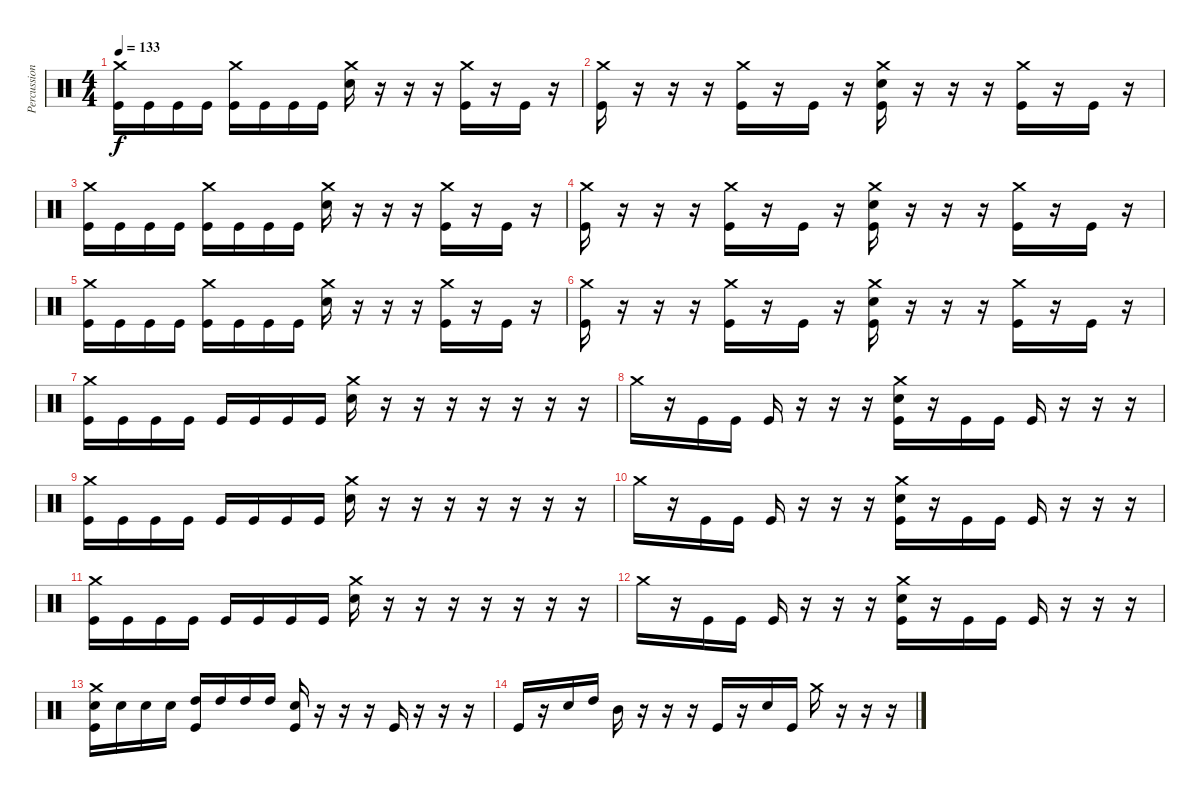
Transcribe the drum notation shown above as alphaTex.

\track ("Percussion" "Percussion") {instrument percussion}
\staff {score}
\articulation defaults
\ts (4 4)
\tempo 133
\clef neutral
\ks c
("Crash medium (hit)" "Kick (hit)").16{dy f} "Kick (hit)".16 "Kick (hit)".16 "Kick (hit)".16 ("Crash medium (hit)" "Kick (hit)").16 "Kick (hit)".16 "Kick (hit)".16 "Kick (hit)".16 ("Crash medium (hit)" "Electric Snare (hit)").16 r.16 r.16 r.16 ("Crash medium (hit)" "Kick (hit)").16 r.16 "Kick (hit)".16 r.16 |
("Crash medium (hit)" "Kick (hit)").16 r.16 r.16 r.16 ("Crash medium (hit)" "Kick (hit)").16 r.16 "Kick (hit)".16 r.16 ("Crash medium (hit)" "Electric Snare (hit)" "Kick (hit)").16 r.16 r.16 r.16 ("Crash medium (hit)" "Kick (hit)").16 r.16 "Kick (hit)".16 r.16 |
("Crash medium (hit)" "Kick (hit)").16 "Kick (hit)".16 "Kick (hit)".16 "Kick (hit)".16 ("Crash medium (hit)" "Kick (hit)").16 "Kick (hit)".16 "Kick (hit)".16 "Kick (hit)".16 ("Crash medium (hit)" "Electric Snare (hit)").16 r.16 r.16 r.16 ("Crash medium (hit)" "Kick (hit)").16 r.16 "Kick (hit)".16 r.16 |
("Crash medium (hit)" "Kick (hit)").16 r.16 r.16 r.16 ("Crash medium (hit)" "Kick (hit)").16 r.16 "Kick (hit)".16 r.16 ("Crash medium (hit)" "Electric Snare (hit)" "Kick (hit)").16 r.16 r.16 r.16 ("Crash medium (hit)" "Kick (hit)").16 r.16 "Kick (hit)".16 r.16 |
("Crash medium (hit)" "Kick (hit)").16 "Kick (hit)".16 "Kick (hit)".16 "Kick (hit)".16 ("Crash medium (hit)" "Kick (hit)").16 "Kick (hit)".16 "Kick (hit)".16 "Kick (hit)".16 ("Crash medium (hit)" "Electric Snare (hit)").16 r.16 r.16 r.16 ("Crash medium (hit)" "Kick (hit)").16 r.16 "Kick (hit)".16 r.16 |
("Crash medium (hit)" "Kick (hit)").16 r.16 r.16 r.16 ("Crash medium (hit)" "Kick (hit)").16 r.16 "Kick (hit)".16 r.16 ("Crash medium (hit)" "Electric Snare (hit)" "Kick (hit)").16 r.16 r.16 r.16 ("Crash medium (hit)" "Kick (hit)").16 r.16 "Kick (hit)".16 r.16 |
("Crash medium (hit)" "Kick (hit)").16 "Kick (hit)".16 "Kick (hit)".16 "Kick (hit)".16 "Kick (hit)".16 "Kick (hit)".16 "Kick (hit)".16 "Kick (hit)".16 ("Crash medium (hit)" "Electric Snare (hit)").16 r.16 r.16 r.16 r.16 r.16 r.16 r.16 |
"Crash medium (hit)".16 r.16 "Kick (hit)".16 "Kick (hit)".16 "Kick (hit)".16 r.16 r.16 r.16 ("Crash medium (hit)" "Electric Snare (hit)" "Kick (hit)").16 r.16 "Kick (hit)".16 "Kick (hit)".16 "Kick (hit)".16 r.16 r.16 r.16 |
("Crash medium (hit)" "Kick (hit)").16 "Kick (hit)".16 "Kick (hit)".16 "Kick (hit)".16 "Kick (hit)".16 "Kick (hit)".16 "Kick (hit)".16 "Kick (hit)".16 ("Crash medium (hit)" "Electric Snare (hit)").16 r.16 r.16 r.16 r.16 r.16 r.16 r.16 |
"Crash medium (hit)".16 r.16 "Kick (hit)".16 "Kick (hit)".16 "Kick (hit)".16 r.16 r.16 r.16 ("Crash medium (hit)" "Electric Snare (hit)" "Kick (hit)").16 r.16 "Kick (hit)".16 "Kick (hit)".16 "Kick (hit)".16 r.16 r.16 r.16 |
("Crash medium (hit)" "Kick (hit)").16 "Kick (hit)".16 "Kick (hit)".16 "Kick (hit)".16 "Kick (hit)".16 "Kick (hit)".16 "Kick (hit)".16 "Kick (hit)".16 ("Crash medium (hit)" "Electric Snare (hit)").16 r.16 r.16 r.16 r.16 r.16 r.16 r.16 |
"Crash medium (hit)".16 r.16 "Kick (hit)".16 "Kick (hit)".16 "Kick (hit)".16 r.16 r.16 r.16 ("Crash medium (hit)" "Electric Snare (hit)" "Kick (hit)").16 r.16 "Kick (hit)".16 "Kick (hit)".16 "Kick (hit)".16 r.16 r.16 r.16 |
("Crash medium (hit)" "Kick (hit)" "Electric Snare (hit)").16 "Electric Snare (hit)".16 "Electric Snare (hit)".16 "Electric Snare (hit)".16 ("Kick (hit)" "High Tom (hit)").16 "High Tom (hit)".16 "High Tom (hit)".16 "High Tom (hit)".16 ("Kick (hit)" "Electric Snare (hit)").16 r.16 r.16 r.16 "Kick (hit)".16 r.16 r.16 r.16 |
"Kick (hit)".16 r.16 "Electric Snare (hit)".16 "High Tom (hit)".16 "Mid Tom (hit)".16 r.16 r.16 r.16 "Kick (hit)".16 r.16 "Electric Snare (hit)".16 "Kick (hit)".16 "Crash medium (hit)".16 r.16 r.16 r.16
